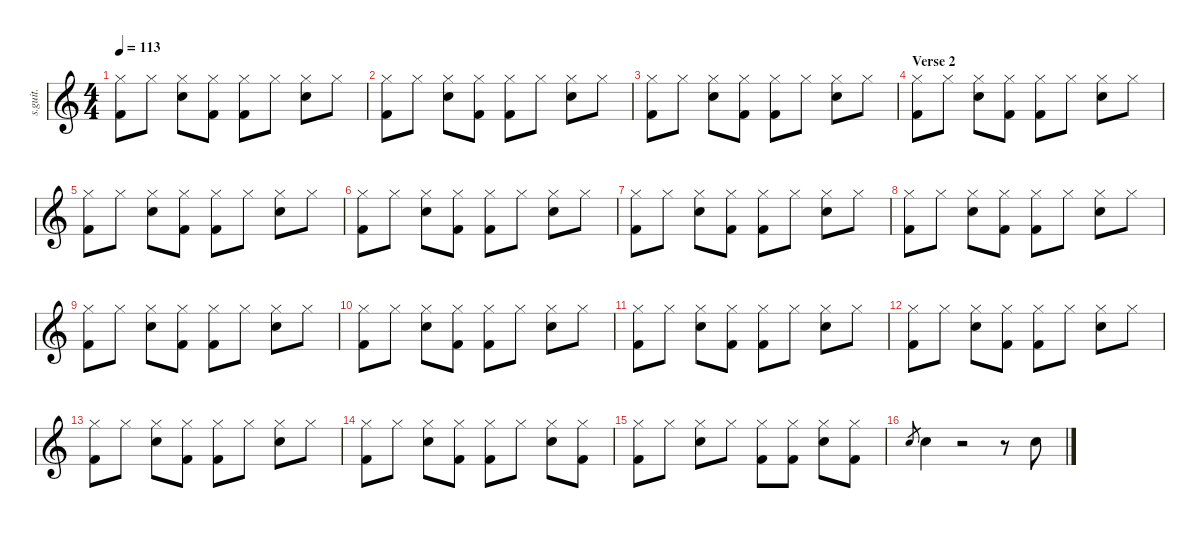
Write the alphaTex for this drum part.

\defaultSystemsLayout 4
\hideDynamics
\bracketExtendMode nobrackets
\track ("" "s.guit.") {instrument percussion}
\staff {score}
\articulation defaults
\ts (4 4)
\tempo 113
\clef g2
\ks c
("Hi-Hat (closed)" "Kick (hit) 2").8{lyrics (0 "") lyrics (1 "") lyrics (2 "") lyrics (3 "") lyrics (4 "") dy f} "Hi-Hat (closed)".8{lyrics (0 "") lyrics (1 "") lyrics (2 "") lyrics (3 "") lyrics (4 "")} ("Hi-Hat (closed)" "Snare (hit) 2").8{lyrics (0 "") lyrics (1 "") lyrics (2 "") lyrics (3 "") lyrics (4 "")} ("Hi-Hat (closed)" "Kick (hit) 2").8{lyrics (0 "") lyrics (1 "") lyrics (2 "") lyrics (3 "") lyrics (4 "")} ("Hi-Hat (closed)" "Kick (hit) 2").8{lyrics (0 "") lyrics (1 "") lyrics (2 "") lyrics (3 "") lyrics (4 "")} "Hi-Hat (closed)".8{lyrics (0 "") lyrics (1 "") lyrics (2 "") lyrics (3 "") lyrics (4 "")} ("Hi-Hat (closed)" "Snare (hit) 2").8{lyrics (0 "") lyrics (1 "") lyrics (2 "") lyrics (3 "") lyrics (4 "")} "Hi-Hat (closed)".8{lyrics (0 "") lyrics (1 "") lyrics (2 "") lyrics (3 "") lyrics (4 "")} |
("Hi-Hat (closed)" "Kick (hit) 2").8{lyrics (0 "") lyrics (1 "") lyrics (2 "") lyrics (3 "") lyrics (4 "")} "Hi-Hat (closed)".8{lyrics (0 "") lyrics (1 "") lyrics (2 "") lyrics (3 "") lyrics (4 "")} ("Hi-Hat (closed)" "Snare (hit) 2").8{lyrics (0 "") lyrics (1 "") lyrics (2 "") lyrics (3 "") lyrics (4 "")} ("Hi-Hat (closed)" "Kick (hit) 2").8{lyrics (0 "") lyrics (1 "") lyrics (2 "") lyrics (3 "") lyrics (4 "")} ("Hi-Hat (closed)" "Kick (hit) 2").8{lyrics (0 "") lyrics (1 "") lyrics (2 "") lyrics (3 "") lyrics (4 "")} "Hi-Hat (closed)".8{lyrics (0 "") lyrics (1 "") lyrics (2 "") lyrics (3 "") lyrics (4 "")} ("Hi-Hat (closed)" "Snare (hit) 2").8{lyrics (0 "") lyrics (1 "") lyrics (2 "") lyrics (3 "") lyrics (4 "")} "Hi-Hat (closed)".8{lyrics (0 "") lyrics (1 "") lyrics (2 "") lyrics (3 "") lyrics (4 "")} |
("Hi-Hat (closed)" "Kick (hit) 2").8{lyrics (0 "") lyrics (1 "") lyrics (2 "") lyrics (3 "") lyrics (4 "")} "Hi-Hat (closed)".8{lyrics (0 "") lyrics (1 "") lyrics (2 "") lyrics (3 "") lyrics (4 "")} ("Hi-Hat (closed)" "Snare (hit) 2").8{lyrics (0 "") lyrics (1 "") lyrics (2 "") lyrics (3 "") lyrics (4 "")} ("Hi-Hat (closed)" "Kick (hit) 2").8{lyrics (0 "") lyrics (1 "") lyrics (2 "") lyrics (3 "") lyrics (4 "")} ("Hi-Hat (closed)" "Kick (hit) 2").8{lyrics (0 "") lyrics (1 "") lyrics (2 "") lyrics (3 "") lyrics (4 "")} "Hi-Hat (closed)".8{lyrics (0 "") lyrics (1 "") lyrics (2 "") lyrics (3 "") lyrics (4 "")} ("Hi-Hat (closed)" "Snare (hit) 2").8{lyrics (0 "") lyrics (1 "") lyrics (2 "") lyrics (3 "") lyrics (4 "")} "Hi-Hat (closed)".8{lyrics (0 "") lyrics (1 "") lyrics (2 "") lyrics (3 "") lyrics (4 "")} |
\section ("" "Verse 2")
("Hi-Hat (closed)" "Kick (hit) 2").8{lyrics (0 "") lyrics (1 "") lyrics (2 "") lyrics (3 "") lyrics (4 "")} "Hi-Hat (closed)".8{lyrics (0 "") lyrics (1 "") lyrics (2 "") lyrics (3 "") lyrics (4 "")} ("Hi-Hat (closed)" "Snare (hit) 2").8{lyrics (0 "") lyrics (1 "") lyrics (2 "") lyrics (3 "") lyrics (4 "")} ("Hi-Hat (closed)" "Kick (hit) 2").8{lyrics (0 "") lyrics (1 "") lyrics (2 "") lyrics (3 "") lyrics (4 "")} ("Hi-Hat (closed)" "Kick (hit) 2").8{lyrics (0 "") lyrics (1 "") lyrics (2 "") lyrics (3 "") lyrics (4 "")} "Hi-Hat (closed)".8{lyrics (0 "") lyrics (1 "") lyrics (2 "") lyrics (3 "") lyrics (4 "")} ("Hi-Hat (closed)" "Snare (hit) 2").8{lyrics (0 "") lyrics (1 "") lyrics (2 "") lyrics (3 "") lyrics (4 "")} "Hi-Hat (closed)".8{lyrics (0 "") lyrics (1 "") lyrics (2 "") lyrics (3 "") lyrics (4 "")} |
("Hi-Hat (closed)" "Kick (hit) 2").8{lyrics (0 "") lyrics (1 "") lyrics (2 "") lyrics (3 "") lyrics (4 "")} "Hi-Hat (closed)".8{lyrics (0 "") lyrics (1 "") lyrics (2 "") lyrics (3 "") lyrics (4 "")} ("Hi-Hat (closed)" "Snare (hit) 2").8{lyrics (0 "") lyrics (1 "") lyrics (2 "") lyrics (3 "") lyrics (4 "")} ("Hi-Hat (closed)" "Kick (hit) 2").8{lyrics (0 "") lyrics (1 "") lyrics (2 "") lyrics (3 "") lyrics (4 "")} ("Hi-Hat (closed)" "Kick (hit) 2").8{lyrics (0 "") lyrics (1 "") lyrics (2 "") lyrics (3 "") lyrics (4 "")} "Hi-Hat (closed)".8{lyrics (0 "") lyrics (1 "") lyrics (2 "") lyrics (3 "") lyrics (4 "")} ("Hi-Hat (closed)" "Snare (hit) 2").8{lyrics (0 "") lyrics (1 "") lyrics (2 "") lyrics (3 "") lyrics (4 "")} "Hi-Hat (closed)".8{lyrics (0 "") lyrics (1 "") lyrics (2 "") lyrics (3 "") lyrics (4 "")} |
("Hi-Hat (closed)" "Kick (hit) 2").8{lyrics (0 "") lyrics (1 "") lyrics (2 "") lyrics (3 "") lyrics (4 "")} "Hi-Hat (closed)".8{lyrics (0 "") lyrics (1 "") lyrics (2 "") lyrics (3 "") lyrics (4 "")} ("Hi-Hat (closed)" "Snare (hit) 2").8{lyrics (0 "") lyrics (1 "") lyrics (2 "") lyrics (3 "") lyrics (4 "")} ("Hi-Hat (closed)" "Kick (hit) 2").8{lyrics (0 "") lyrics (1 "") lyrics (2 "") lyrics (3 "") lyrics (4 "")} ("Hi-Hat (closed)" "Kick (hit) 2").8{lyrics (0 "") lyrics (1 "") lyrics (2 "") lyrics (3 "") lyrics (4 "")} "Hi-Hat (closed)".8{lyrics (0 "") lyrics (1 "") lyrics (2 "") lyrics (3 "") lyrics (4 "")} ("Hi-Hat (closed)" "Snare (hit) 2").8{lyrics (0 "") lyrics (1 "") lyrics (2 "") lyrics (3 "") lyrics (4 "")} "Hi-Hat (closed)".8{lyrics (0 "") lyrics (1 "") lyrics (2 "") lyrics (3 "") lyrics (4 "")} |
("Hi-Hat (closed)" "Kick (hit) 2").8{lyrics (0 "") lyrics (1 "") lyrics (2 "") lyrics (3 "") lyrics (4 "")} "Hi-Hat (closed)".8{lyrics (0 "") lyrics (1 "") lyrics (2 "") lyrics (3 "") lyrics (4 "")} ("Hi-Hat (closed)" "Snare (hit) 2").8{lyrics (0 "") lyrics (1 "") lyrics (2 "") lyrics (3 "") lyrics (4 "")} ("Hi-Hat (closed)" "Kick (hit) 2").8{lyrics (0 "") lyrics (1 "") lyrics (2 "") lyrics (3 "") lyrics (4 "")} ("Hi-Hat (closed)" "Kick (hit) 2").8{lyrics (0 "") lyrics (1 "") lyrics (2 "") lyrics (3 "") lyrics (4 "")} "Hi-Hat (closed)".8{lyrics (0 "") lyrics (1 "") lyrics (2 "") lyrics (3 "") lyrics (4 "")} ("Hi-Hat (closed)" "Snare (hit) 2").8{lyrics (0 "") lyrics (1 "") lyrics (2 "") lyrics (3 "") lyrics (4 "")} "Hi-Hat (closed)".8{lyrics (0 "") lyrics (1 "") lyrics (2 "") lyrics (3 "") lyrics (4 "")} |
("Hi-Hat (closed)" "Kick (hit) 2").8{lyrics (0 "") lyrics (1 "") lyrics (2 "") lyrics (3 "") lyrics (4 "")} "Hi-Hat (closed)".8{lyrics (0 "") lyrics (1 "") lyrics (2 "") lyrics (3 "") lyrics (4 "")} ("Hi-Hat (closed)" "Snare (hit) 2").8{lyrics (0 "") lyrics (1 "") lyrics (2 "") lyrics (3 "") lyrics (4 "")} ("Hi-Hat (closed)" "Kick (hit) 2").8{lyrics (0 "") lyrics (1 "") lyrics (2 "") lyrics (3 "") lyrics (4 "")} ("Hi-Hat (closed)" "Kick (hit) 2").8{lyrics (0 "") lyrics (1 "") lyrics (2 "") lyrics (3 "") lyrics (4 "")} "Hi-Hat (closed)".8{lyrics (0 "") lyrics (1 "") lyrics (2 "") lyrics (3 "") lyrics (4 "")} ("Hi-Hat (closed)" "Snare (hit) 2").8{lyrics (0 "") lyrics (1 "") lyrics (2 "") lyrics (3 "") lyrics (4 "")} "Hi-Hat (closed)".8{lyrics (0 "") lyrics (1 "") lyrics (2 "") lyrics (3 "") lyrics (4 "")} |
("Hi-Hat (closed)" "Kick (hit) 2").8{lyrics (0 "") lyrics (1 "") lyrics (2 "") lyrics (3 "") lyrics (4 "")} "Hi-Hat (closed)".8{lyrics (0 "") lyrics (1 "") lyrics (2 "") lyrics (3 "") lyrics (4 "")} ("Hi-Hat (closed)" "Snare (hit) 2").8{lyrics (0 "") lyrics (1 "") lyrics (2 "") lyrics (3 "") lyrics (4 "")} ("Hi-Hat (closed)" "Kick (hit) 2").8{lyrics (0 "") lyrics (1 "") lyrics (2 "") lyrics (3 "") lyrics (4 "")} ("Hi-Hat (closed)" "Kick (hit) 2").8{lyrics (0 "") lyrics (1 "") lyrics (2 "") lyrics (3 "") lyrics (4 "")} "Hi-Hat (closed)".8{lyrics (0 "") lyrics (1 "") lyrics (2 "") lyrics (3 "") lyrics (4 "")} ("Hi-Hat (closed)" "Snare (hit) 2").8{lyrics (0 "") lyrics (1 "") lyrics (2 "") lyrics (3 "") lyrics (4 "")} "Hi-Hat (closed)".8{lyrics (0 "") lyrics (1 "") lyrics (2 "") lyrics (3 "") lyrics (4 "")} |
("Hi-Hat (closed)" "Kick (hit) 2").8{lyrics (0 "") lyrics (1 "") lyrics (2 "") lyrics (3 "") lyrics (4 "")} "Hi-Hat (closed)".8{lyrics (0 "") lyrics (1 "") lyrics (2 "") lyrics (3 "") lyrics (4 "")} ("Hi-Hat (closed)" "Snare (hit) 2").8{lyrics (0 "") lyrics (1 "") lyrics (2 "") lyrics (3 "") lyrics (4 "")} ("Hi-Hat (closed)" "Kick (hit) 2").8{lyrics (0 "") lyrics (1 "") lyrics (2 "") lyrics (3 "") lyrics (4 "")} ("Hi-Hat (closed)" "Kick (hit) 2").8{lyrics (0 "") lyrics (1 "") lyrics (2 "") lyrics (3 "") lyrics (4 "")} "Hi-Hat (closed)".8{lyrics (0 "") lyrics (1 "") lyrics (2 "") lyrics (3 "") lyrics (4 "")} ("Hi-Hat (closed)" "Snare (hit) 2").8{lyrics (0 "") lyrics (1 "") lyrics (2 "") lyrics (3 "") lyrics (4 "")} "Hi-Hat (closed)".8{lyrics (0 "") lyrics (1 "") lyrics (2 "") lyrics (3 "") lyrics (4 "")} |
("Hi-Hat (closed)" "Kick (hit) 2").8{lyrics (0 "") lyrics (1 "") lyrics (2 "") lyrics (3 "") lyrics (4 "")} "Hi-Hat (closed)".8{lyrics (0 "") lyrics (1 "") lyrics (2 "") lyrics (3 "") lyrics (4 "")} ("Hi-Hat (closed)" "Snare (hit) 2").8{lyrics (0 "") lyrics (1 "") lyrics (2 "") lyrics (3 "") lyrics (4 "")} ("Hi-Hat (closed)" "Kick (hit) 2").8{lyrics (0 "") lyrics (1 "") lyrics (2 "") lyrics (3 "") lyrics (4 "")} ("Hi-Hat (closed)" "Kick (hit) 2").8{lyrics (0 "") lyrics (1 "") lyrics (2 "") lyrics (3 "") lyrics (4 "")} "Hi-Hat (closed)".8{lyrics (0 "") lyrics (1 "") lyrics (2 "") lyrics (3 "") lyrics (4 "")} ("Hi-Hat (closed)" "Snare (hit) 2").8{lyrics (0 "") lyrics (1 "") lyrics (2 "") lyrics (3 "") lyrics (4 "")} "Hi-Hat (closed)".8{lyrics (0 "") lyrics (1 "") lyrics (2 "") lyrics (3 "") lyrics (4 "")} |
("Hi-Hat (closed)" "Kick (hit) 2").8{lyrics (0 "") lyrics (1 "") lyrics (2 "") lyrics (3 "") lyrics (4 "")} "Hi-Hat (closed)".8{lyrics (0 "") lyrics (1 "") lyrics (2 "") lyrics (3 "") lyrics (4 "")} ("Hi-Hat (closed)" "Snare (hit) 2").8{lyrics (0 "") lyrics (1 "") lyrics (2 "") lyrics (3 "") lyrics (4 "")} ("Hi-Hat (closed)" "Kick (hit) 2").8{lyrics (0 "") lyrics (1 "") lyrics (2 "") lyrics (3 "") lyrics (4 "")} ("Hi-Hat (closed)" "Kick (hit) 2").8{lyrics (0 "") lyrics (1 "") lyrics (2 "") lyrics (3 "") lyrics (4 "")} "Hi-Hat (closed)".8{lyrics (0 "") lyrics (1 "") lyrics (2 "") lyrics (3 "") lyrics (4 "")} ("Hi-Hat (closed)" "Snare (hit) 2").8{lyrics (0 "") lyrics (1 "") lyrics (2 "") lyrics (3 "") lyrics (4 "")} "Hi-Hat (closed)".8{lyrics (0 "") lyrics (1 "") lyrics (2 "") lyrics (3 "") lyrics (4 "")} |
("Hi-Hat (closed)" "Kick (hit) 2").8{lyrics (0 "") lyrics (1 "") lyrics (2 "") lyrics (3 "") lyrics (4 "")} "Hi-Hat (closed)".8{lyrics (0 "") lyrics (1 "") lyrics (2 "") lyrics (3 "") lyrics (4 "")} ("Hi-Hat (closed)" "Snare (hit) 2").8{lyrics (0 "") lyrics (1 "") lyrics (2 "") lyrics (3 "") lyrics (4 "")} ("Hi-Hat (closed)" "Kick (hit) 2").8{lyrics (0 "") lyrics (1 "") lyrics (2 "") lyrics (3 "") lyrics (4 "")} ("Hi-Hat (closed)" "Kick (hit) 2").8{lyrics (0 "") lyrics (1 "") lyrics (2 "") lyrics (3 "") lyrics (4 "")} "Hi-Hat (closed)".8{lyrics (0 "") lyrics (1 "") lyrics (2 "") lyrics (3 "") lyrics (4 "")} ("Hi-Hat (closed)" "Snare (hit) 2").8{lyrics (0 "") lyrics (1 "") lyrics (2 "") lyrics (3 "") lyrics (4 "")} "Hi-Hat (closed)".8{lyrics (0 "") lyrics (1 "") lyrics (2 "") lyrics (3 "") lyrics (4 "")} |
("Hi-Hat (closed)" "Kick (hit) 2").8{lyrics (0 "") lyrics (1 "") lyrics (2 "") lyrics (3 "") lyrics (4 "")} "Hi-Hat (closed)".8{lyrics (0 "") lyrics (1 "") lyrics (2 "") lyrics (3 "") lyrics (4 "")} ("Hi-Hat (closed)" "Snare (hit) 2").8{lyrics (0 "") lyrics (1 "") lyrics (2 "") lyrics (3 "") lyrics (4 "")} ("Hi-Hat (closed)" "Kick (hit) 2").8{lyrics (0 "") lyrics (1 "") lyrics (2 "") lyrics (3 "") lyrics (4 "")} ("Hi-Hat (closed)" "Kick (hit) 2").8{lyrics (0 "") lyrics (1 "") lyrics (2 "") lyrics (3 "") lyrics (4 "")} "Hi-Hat (closed)".8{lyrics (0 "") lyrics (1 "") lyrics (2 "") lyrics (3 "") lyrics (4 "")} ("Hi-Hat (closed)" "Snare (hit) 2").8{lyrics (0 "") lyrics (1 "") lyrics (2 "") lyrics (3 "") lyrics (4 "")} ("Hi-Hat (closed)" "Kick (hit) 2").8{lyrics (0 "") lyrics (1 "") lyrics (2 "") lyrics (3 "") lyrics (4 "")} |
("Hi-Hat (closed)" "Kick (hit) 2").8{lyrics (0 "") lyrics (1 "") lyrics (2 "") lyrics (3 "") lyrics (4 "")} "Hi-Hat (closed)".8{lyrics (0 "") lyrics (1 "") lyrics (2 "") lyrics (3 "") lyrics (4 "")} ("Hi-Hat (closed)" "Snare (hit) 2").8{lyrics (0 "") lyrics (1 "") lyrics (2 "") lyrics (3 "") lyrics (4 "")} "Hi-Hat (closed)".8{lyrics (0 "") lyrics (1 "") lyrics (2 "") lyrics (3 "") lyrics (4 "")} ("Hi-Hat (closed)" "Kick (hit) 2").8{lyrics (0 "") lyrics (1 "") lyrics (2 "") lyrics (3 "") lyrics (4 "")} ("Hi-Hat (closed)" "Kick (hit) 2").8{lyrics (0 "") lyrics (1 "") lyrics (2 "") lyrics (3 "") lyrics (4 "")} ("Hi-Hat (closed)" "Snare (hit) 2").8{lyrics (0 "") lyrics (1 "") lyrics (2 "") lyrics (3 "") lyrics (4 "")} ("Hi-Hat (closed)" "Kick (hit) 2").8{lyrics (0 "") lyrics (1 "") lyrics (2 "") lyrics (3 "") lyrics (4 "")} |
"Snare (hit) 2".8{lyrics (0 "") lyrics (1 "") lyrics (2 "") lyrics (3 "") lyrics (4 "") gr} "Snare (hit) 2".4{lyrics (0 "") lyrics (1 "") lyrics (2 "") lyrics (3 "") lyrics (4 "")} r.2 r.8 "Snare (hit) 2".8{lyrics (0 "") lyrics (1 "") lyrics (2 "") lyrics (3 "") lyrics (4 "")}
